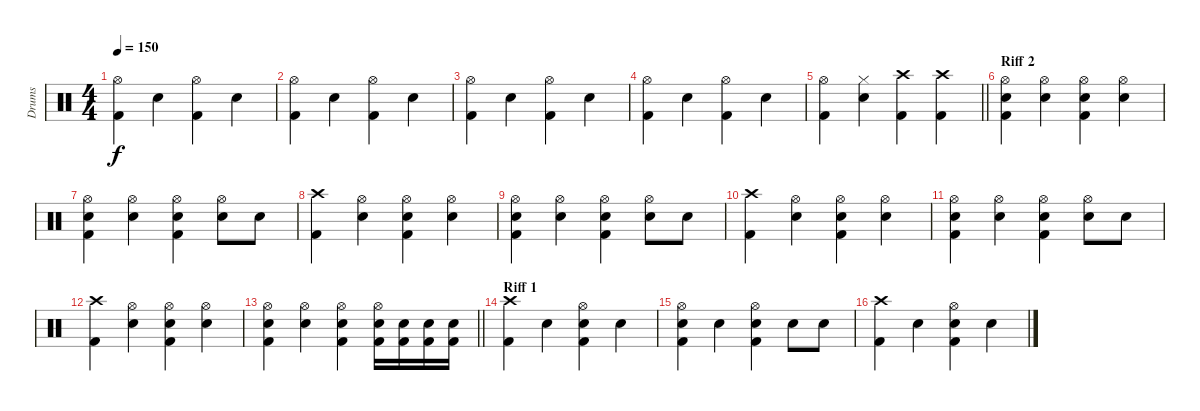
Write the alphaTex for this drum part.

\track ("Drums" "Drums") {instrument percussion}
\staff
\articulation defaults
\ts (4 4)
\tempo 150
\clef neutral
\ks c
("Hi-Hat (open)" "Kick (hit) 2").4{dy f} "Snare (hit) 2".4 ("Hi-Hat (open)" "Kick (hit) 2").4 "Snare (hit) 2".4 |
("Hi-Hat (open)" "Kick (hit) 2").4 "Snare (hit) 2".4 ("Hi-Hat (open)" "Kick (hit) 2").4 "Snare (hit) 2".4 |
("Hi-Hat (open)" "Kick (hit) 2").4 "Snare (hit) 2".4 ("Hi-Hat (open)" "Kick (hit) 2").4 "Snare (hit) 2".4 |
("Hi-Hat (open)" "Kick (hit) 2").4 "Snare (hit) 2".4 ("Hi-Hat (open)" "Kick (hit) 2").4 "Snare (hit) 2".4 |
\barLineRight lightlight
("Hi-Hat (open)" "Kick (hit) 2").4 ("Hi-Hat (closed)" "Snare (hit) 2").4 ("Crash high (hit)" "Kick (hit) 2").4 ("Crash high (hit)" "Kick (hit) 2").4 |
\section ("" "Riff 2")
("Hi-Hat (open)" "Snare (hit) 2" "Kick (hit) 2").4 ("Hi-Hat (open)" "Snare (hit) 2").4 ("Hi-Hat (open)" "Snare (hit) 2" "Kick (hit) 2").4 ("Hi-Hat (open)" "Snare (hit) 2").4 |
("Hi-Hat (open)" "Snare (hit) 2" "Kick (hit) 2").4 ("Hi-Hat (open)" "Snare (hit) 2").4 ("Hi-Hat (open)" "Snare (hit) 2" "Kick (hit) 2").4 ("Hi-Hat (open)" "Snare (hit) 2").8 "Snare (hit) 2".8 |
("Crash high (hit)" "Kick (hit) 2").4 ("Hi-Hat (open)" "Snare (hit) 2").4 ("Hi-Hat (open)" "Snare (hit) 2" "Kick (hit) 2").4 ("Hi-Hat (open)" "Snare (hit) 2").4 |
("Hi-Hat (open)" "Snare (hit) 2" "Kick (hit) 2").4 ("Hi-Hat (open)" "Snare (hit) 2").4 ("Hi-Hat (open)" "Snare (hit) 2" "Kick (hit) 2").4 ("Hi-Hat (open)" "Snare (hit) 2").8 "Snare (hit) 2".8 |
("Crash high (hit)" "Kick (hit) 2").4 ("Hi-Hat (open)" "Snare (hit) 2").4 ("Hi-Hat (open)" "Snare (hit) 2" "Kick (hit) 2").4 ("Hi-Hat (open)" "Snare (hit) 2").4 |
("Hi-Hat (open)" "Snare (hit) 2" "Kick (hit) 2").4 ("Hi-Hat (open)" "Snare (hit) 2").4 ("Hi-Hat (open)" "Snare (hit) 2" "Kick (hit) 2").4 ("Hi-Hat (open)" "Snare (hit) 2").8 "Snare (hit) 2".8 |
("Crash high (hit)" "Kick (hit) 2").4 ("Hi-Hat (open)" "Snare (hit) 2").4 ("Hi-Hat (open)" "Snare (hit) 2" "Kick (hit) 2").4 ("Hi-Hat (open)" "Snare (hit) 2").4 |
\barLineRight lightlight
("Hi-Hat (open)" "Snare (hit) 2" "Kick (hit) 2").4 ("Hi-Hat (open)" "Snare (hit) 2").4 ("Hi-Hat (open)" "Snare (hit) 2" "Kick (hit) 2").4 ("Hi-Hat (open)" "Snare (hit) 2" "Kick (hit) 2").16 ("Snare (hit) 2" "Kick (hit) 2").16 ("Snare (hit) 2" "Kick (hit) 2").16 ("Snare (hit) 2" "Kick (hit) 2").16 |
\section ("" "Riff 1")
("Crash high (hit)" "Kick (hit) 2").4 "Snare (hit) 2".4 ("Hi-Hat (open)" "Snare (hit) 2" "Kick (hit) 2").4 "Snare (hit) 2".4 |
("Hi-Hat (open)" "Snare (hit) 2" "Kick (hit) 2").4 "Snare (hit) 2".4 ("Hi-Hat (open)" "Snare (hit) 2" "Kick (hit) 2").4 "Snare (hit) 2".8 "Snare (hit) 2".8 |
("Crash high (hit)" "Kick (hit) 2").4 "Snare (hit) 2".4 ("Hi-Hat (open)" "Snare (hit) 2" "Kick (hit) 2").4 "Snare (hit) 2".4
